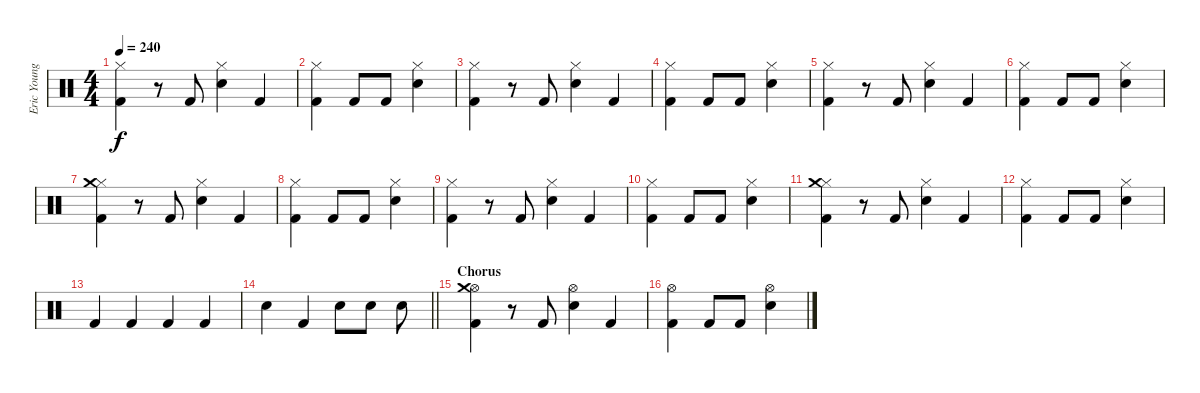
\track ("Eric Young (Drums)" "Eric Young") {instrument percussion}
\staff {score}
\articulation defaults
\ts (4 4)
\tempo 240
\clef neutral
\ks c
("Hi-Hat (closed)" "Kick (hit) 2").4{dy f} r.8 "Kick (hit) 2".8 ("Hi-Hat (closed)" "Snare (hit) 2").4 "Kick (hit) 2".4 |
("Hi-Hat (closed)" "Kick (hit) 2").4 "Kick (hit) 2".8 "Kick (hit) 2".8 ("Hi-Hat (closed)" "Snare (hit) 2").4 |
("Hi-Hat (closed)" "Kick (hit) 2").4 r.8 "Kick (hit) 2".8 ("Hi-Hat (closed)" "Snare (hit) 2").4 "Kick (hit) 2".4 |
("Hi-Hat (closed)" "Kick (hit) 2").4 "Kick (hit) 2".8 "Kick (hit) 2".8 ("Hi-Hat (closed)" "Snare (hit) 2").4 |
("Hi-Hat (closed)" "Kick (hit) 2").4 r.8 "Kick (hit) 2".8 ("Hi-Hat (closed)" "Snare (hit) 2").4 "Kick (hit) 2".4 |
("Hi-Hat (closed)" "Kick (hit) 2").4 "Kick (hit) 2".8 "Kick (hit) 2".8 ("Hi-Hat (closed)" "Snare (hit) 2").4 |
("Hi-Hat (closed)" "Kick (hit) 2" "Crash medium (hit)").4 r.8 "Kick (hit) 2".8 ("Hi-Hat (closed)" "Snare (hit) 2").4 "Kick (hit) 2".4 |
("Hi-Hat (closed)" "Kick (hit) 2").4 "Kick (hit) 2".8 "Kick (hit) 2".8 ("Hi-Hat (closed)" "Snare (hit) 2").4 |
("Hi-Hat (closed)" "Kick (hit) 2").4 r.8 "Kick (hit) 2".8 ("Hi-Hat (closed)" "Snare (hit) 2").4 "Kick (hit) 2".4 |
("Hi-Hat (closed)" "Kick (hit) 2").4 "Kick (hit) 2".8 "Kick (hit) 2".8 ("Hi-Hat (closed)" "Snare (hit) 2").4 |
("Hi-Hat (closed)" "Kick (hit) 2" "Crash medium (hit)").4 r.8 "Kick (hit) 2".8 ("Hi-Hat (closed)" "Snare (hit) 2").4 "Kick (hit) 2".4 |
("Hi-Hat (closed)" "Kick (hit) 2").4 "Kick (hit) 2".8 "Kick (hit) 2".8 ("Hi-Hat (closed)" "Snare (hit) 2").4 |
"Kick (hit) 2".4 "Kick (hit) 2".4 "Kick (hit) 2".4 "Kick (hit) 2".4 |
\barLineRight lightlight "Snare (hit) 2".4 "Kick (hit) 2".4 "Snare (hit) 2".8 "Snare (hit) 2".8 "Snare (hit) 2".8
|
\section ("" "Chorus")
("Hi-Hat (open)" "Kick (hit) 2" "Crash medium (hit)").4 r.8 "Kick (hit) 2".8 ("Hi-Hat (open)" "Snare (hit) 2").4 "Kick (hit) 2".4 |
("Hi-Hat (open)" "Kick (hit) 2").4 "Kick (hit) 2".8 "Kick (hit) 2".8 ("Hi-Hat (open)" "Snare (hit) 2").4
